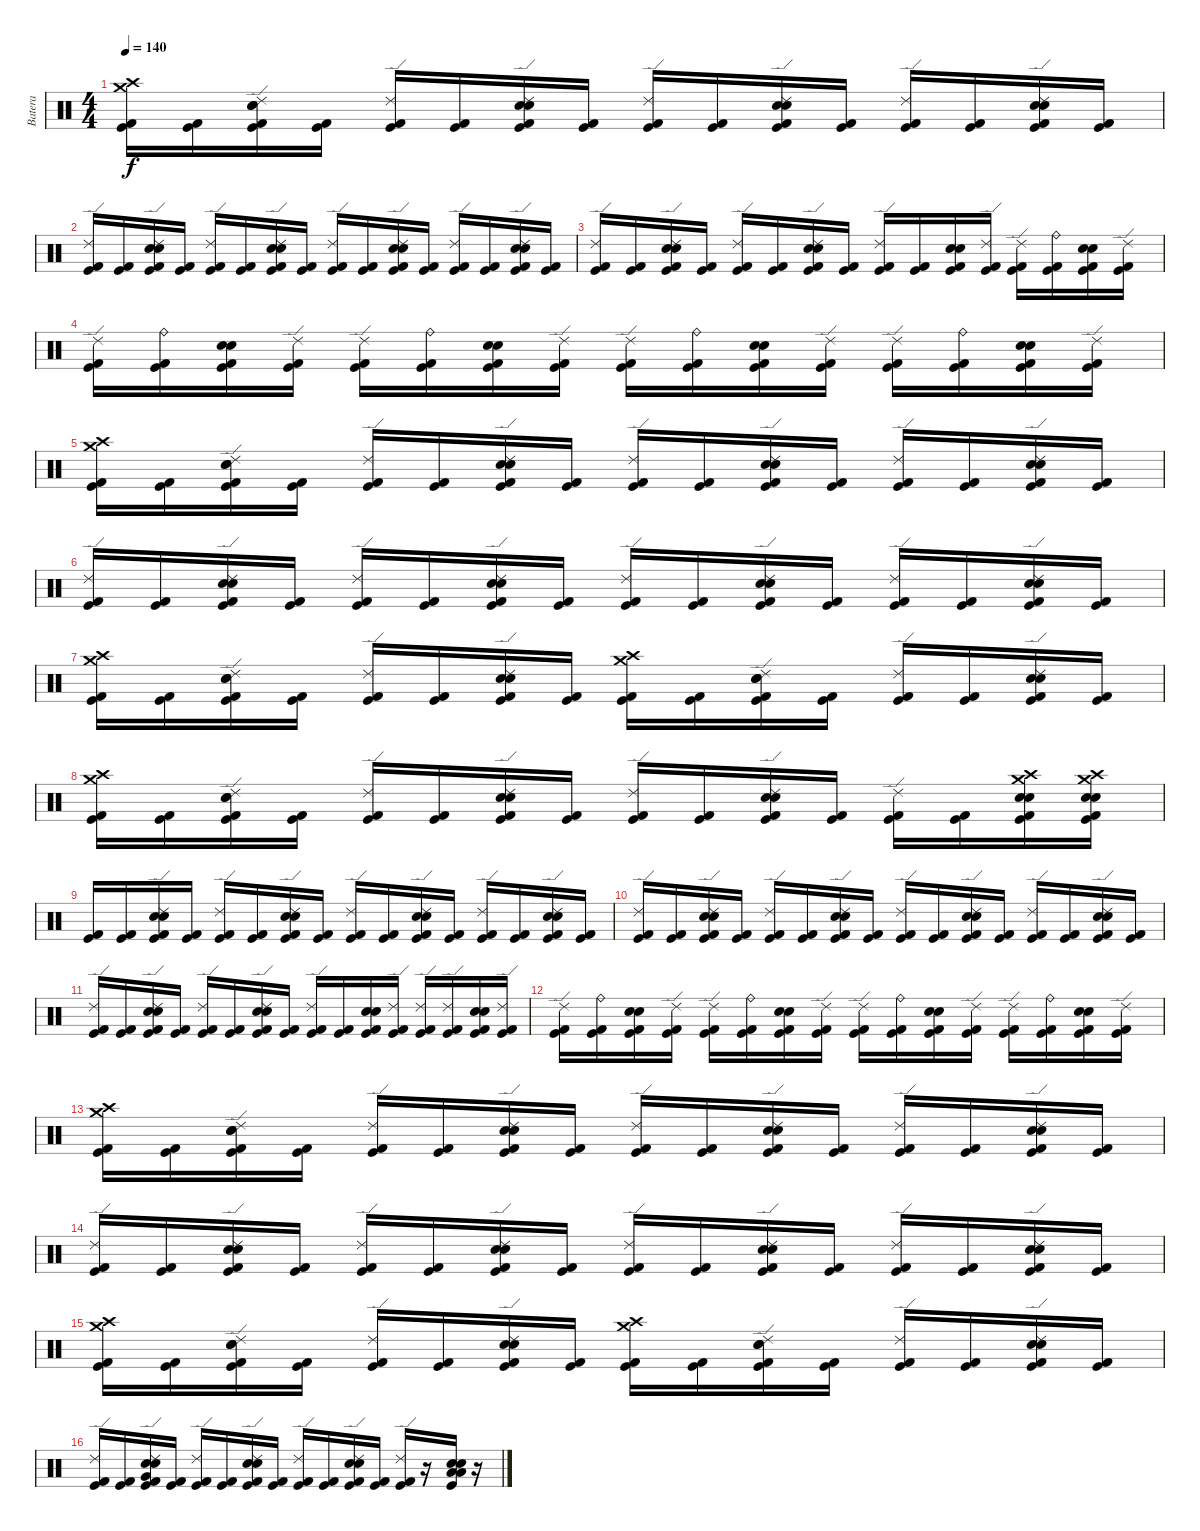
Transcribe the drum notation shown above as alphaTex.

\track ("Batera" "Batera") {instrument percussion}
\staff {score}
\articulation defaults
\ts (4 4)
\tempo 140
\clef neutral
\ks c
("Crash high (hit)" "Crash medium (hit)" "Kick (hit) 2" "Kick (hit)").16{dy f} ("Kick (hit) 2" "Kick (hit)").16 ("Ride (edge) 2" "Electric Snare (hit)" "Snare (hit) 2" "Kick (hit) 2" "Kick (hit)").16 ("Kick (hit) 2" "Kick (hit)").16 ("Ride (edge) 2" "Kick (hit) 2" "Kick (hit)").16 ("Kick (hit) 2" "Kick (hit)").16 ("Ride (edge) 2" "Electric Snare (hit)" "Snare (hit) 2" "Kick (hit) 2" "Kick (hit)").16 ("Kick (hit) 2" "Kick (hit)").16 ("Ride (edge) 2" "Kick (hit) 2" "Kick (hit)").16 ("Kick (hit) 2" "Kick (hit)").16 ("Ride (edge) 2" "Electric Snare (hit)" "Snare (hit) 2" "Kick (hit) 2" "Kick (hit)").16 ("Kick (hit) 2" "Kick (hit)").16 ("Ride (edge) 2" "Kick (hit) 2" "Kick (hit)").16 ("Kick (hit) 2" "Kick (hit)").16 ("Ride (edge) 2" "Electric Snare (hit)" "Snare (hit) 2" "Kick (hit) 2" "Kick (hit)").16 ("Kick (hit) 2" "Kick (hit)").16 |
("Ride (edge) 2" "Kick (hit) 2" "Kick (hit)").16 ("Kick (hit) 2" "Kick (hit)").16 ("Ride (edge) 2" "Electric Snare (hit)" "Snare (hit) 2" "Kick (hit) 2" "Kick (hit)").16 ("Kick (hit) 2" "Kick (hit)").16 ("Ride (edge) 2" "Kick (hit) 2" "Kick (hit)").16 ("Kick (hit) 2" "Kick (hit)").16 ("Ride (edge) 2" "Electric Snare (hit)" "Snare (hit) 2" "Kick (hit) 2" "Kick (hit)").16 ("Kick (hit) 2" "Kick (hit)").16 ("Ride (edge) 2" "Kick (hit) 2" "Kick (hit)").16 ("Kick (hit) 2" "Kick (hit)").16 ("Ride (edge) 2" "Electric Snare (hit)" "Snare (hit) 2" "Kick (hit) 2" "Kick (hit)").16 ("Kick (hit) 2" "Kick (hit)").16 ("Ride (edge) 2" "Kick (hit) 2" "Kick (hit)").16 ("Kick (hit) 2" "Kick (hit)").16 ("Ride (edge) 2" "Electric Snare (hit)" "Snare (hit) 2" "Kick (hit) 2" "Kick (hit)").16 ("Kick (hit) 2" "Kick (hit)").16 |
("Ride (edge) 2" "Kick (hit) 2" "Kick (hit)").16 ("Kick (hit) 2" "Kick (hit)").16 ("Ride (edge) 2" "Electric Snare (hit)" "Snare (hit) 2" "Kick (hit) 2" "Kick (hit)").16 ("Kick (hit) 2" "Kick (hit)").16 ("Ride (edge) 2" "Kick (hit) 2" "Kick (hit)").16 ("Kick (hit) 2" "Kick (hit)").16 ("Ride (edge) 2" "Electric Snare (hit)" "Snare (hit) 2" "Kick (hit) 2" "Kick (hit)").16 ("Kick (hit) 2" "Kick (hit)").16 ("Ride (edge) 2" "Kick (hit) 2" "Kick (hit)").16 ("Kick (hit) 2" "Kick (hit)").16 ("Electric Snare (hit)" "Snare (hit) 2" "Kick (hit) 2" "Kick (hit)").16 ("Ride (edge) 2" "Kick (hit) 2" "Kick (hit)").16 ("Ride (edge) 2" "Kick (hit) 2" "Kick (hit)").16 ("Ride (bell)" "Kick (hit) 2" "Kick (hit)").16 ("Electric Snare (hit)" "Snare (hit) 2" "Kick (hit) 2" "Kick (hit)").16 ("Ride (edge) 2" "Kick (hit) 2" "Kick (hit)").16 |
("Ride (edge) 2" "Kick (hit) 2" "Kick (hit)").16 ("Ride (bell)" "Kick (hit) 2" "Kick (hit)").16 ("Electric Snare (hit)" "Snare (hit) 2" "Kick (hit) 2" "Kick (hit)").16 ("Ride (edge) 2" "Kick (hit) 2" "Kick (hit)").16 ("Ride (edge) 2" "Kick (hit) 2" "Kick (hit)").16 ("Ride (bell)" "Kick (hit) 2" "Kick (hit)").16 ("Electric Snare (hit)" "Snare (hit) 2" "Kick (hit) 2" "Kick (hit)").16 ("Ride (edge) 2" "Kick (hit) 2" "Kick (hit)").16 ("Ride (edge) 2" "Kick (hit) 2" "Kick (hit)").16 ("Ride (bell)" "Kick (hit) 2" "Kick (hit)").16 ("Electric Snare (hit)" "Snare (hit) 2" "Kick (hit) 2" "Kick (hit)").16 ("Ride (edge) 2" "Kick (hit) 2" "Kick (hit)").16 ("Ride (edge) 2" "Kick (hit) 2" "Kick (hit)").16 ("Ride (bell)" "Kick (hit) 2" "Kick (hit)").16 ("Electric Snare (hit)" "Snare (hit) 2" "Kick (hit) 2" "Kick (hit)").16 ("Ride (edge) 2" "Kick (hit) 2" "Kick (hit)").16 |
("Crash high (hit)" "Crash medium (hit)" "Kick (hit) 2" "Kick (hit)").16 ("Kick (hit) 2" "Kick (hit)").16 ("Ride (edge) 2" "Electric Snare (hit)" "Snare (hit) 2" "Kick (hit) 2" "Kick (hit)").16 ("Kick (hit) 2" "Kick (hit)").16 ("Ride (edge) 2" "Kick (hit) 2" "Kick (hit)").16 ("Kick (hit) 2" "Kick (hit)").16 ("Ride (edge) 2" "Electric Snare (hit)" "Snare (hit) 2" "Kick (hit) 2" "Kick (hit)").16 ("Kick (hit) 2" "Kick (hit)").16 ("Ride (edge) 2" "Kick (hit) 2" "Kick (hit)").16 ("Kick (hit) 2" "Kick (hit)").16 ("Ride (edge) 2" "Electric Snare (hit)" "Snare (hit) 2" "Kick (hit) 2" "Kick (hit)").16 ("Kick (hit) 2" "Kick (hit)").16 ("Ride (edge) 2" "Kick (hit) 2" "Kick (hit)").16 ("Kick (hit) 2" "Kick (hit)").16 ("Ride (edge) 2" "Electric Snare (hit)" "Snare (hit) 2" "Kick (hit) 2" "Kick (hit)").16 ("Kick (hit) 2" "Kick (hit)").16 |
("Ride (edge) 2" "Kick (hit) 2" "Kick (hit)").16 ("Kick (hit) 2" "Kick (hit)").16 ("Ride (edge) 2" "Electric Snare (hit)" "Snare (hit) 2" "Kick (hit) 2" "Kick (hit)").16 ("Kick (hit) 2" "Kick (hit)").16 ("Ride (edge) 2" "Kick (hit) 2" "Kick (hit)").16 ("Kick (hit) 2" "Kick (hit)").16 ("Ride (edge) 2" "Electric Snare (hit)" "Snare (hit) 2" "Kick (hit) 2" "Kick (hit)").16 ("Kick (hit) 2" "Kick (hit)").16 ("Ride (edge) 2" "Kick (hit) 2" "Kick (hit)").16 ("Kick (hit) 2" "Kick (hit)").16 ("Ride (edge) 2" "Electric Snare (hit)" "Snare (hit) 2" "Kick (hit) 2" "Kick (hit)").16 ("Kick (hit) 2" "Kick (hit)").16 ("Ride (edge) 2" "Kick (hit) 2" "Kick (hit)").16 ("Kick (hit) 2" "Kick (hit)").16 ("Ride (edge) 2" "Electric Snare (hit)" "Snare (hit) 2" "Kick (hit) 2" "Kick (hit)").16 ("Kick (hit) 2" "Kick (hit)").16 |
("Crash high (hit)" "Crash medium (hit)" "Kick (hit) 2" "Kick (hit)").16 ("Kick (hit) 2" "Kick (hit)").16 ("Ride (edge) 2" "Electric Snare (hit)" "Snare (hit) 2" "Kick (hit) 2" "Kick (hit)").16 ("Kick (hit) 2" "Kick (hit)").16 ("Ride (edge) 2" "Kick (hit) 2" "Kick (hit)").16 ("Kick (hit) 2" "Kick (hit)").16 ("Ride (edge) 2" "Electric Snare (hit)" "Snare (hit) 2" "Kick (hit) 2" "Kick (hit)").16 ("Kick (hit) 2" "Kick (hit)").16 ("Crash high (hit)" "Crash medium (hit)" "Kick (hit) 2" "Kick (hit)").16 ("Kick (hit) 2" "Kick (hit)").16 ("Ride (edge) 2" "Electric Snare (hit)" "Snare (hit) 2" "Kick (hit) 2" "Kick (hit)").16 ("Kick (hit) 2" "Kick (hit)").16 ("Ride (edge) 2" "Kick (hit) 2" "Kick (hit)").16 ("Kick (hit) 2" "Kick (hit)").16 ("Ride (edge) 2" "Electric Snare (hit)" "Snare (hit) 2" "Kick (hit) 2" "Kick (hit)").16 ("Kick (hit) 2" "Kick (hit)").16 |
("Crash high (hit)" "Crash medium (hit)" "Kick (hit) 2" "Kick (hit)").16 ("Kick (hit) 2" "Kick (hit)").16 ("Ride (edge) 2" "Electric Snare (hit)" "Snare (hit) 2" "Kick (hit) 2" "Kick (hit)").16 ("Kick (hit) 2" "Kick (hit)").16 ("Ride (edge) 2" "Kick (hit) 2" "Kick (hit)").16 ("Kick (hit) 2" "Kick (hit)").16 ("Ride (edge) 2" "Electric Snare (hit)" "Snare (hit) 2" "Kick (hit) 2" "Kick (hit)").16 ("Kick (hit) 2" "Kick (hit)").16 ("Ride (edge) 2" "Kick (hit) 2" "Kick (hit)").16 ("Kick (hit) 2" "Kick (hit)").16 ("Ride (edge) 2" "Electric Snare (hit)" "Snare (hit) 2" "Kick (hit) 2" "Kick (hit)").16 ("Kick (hit) 2" "Kick (hit)").16 ("Ride (edge) 2" "Kick (hit) 2" "Kick (hit)").16 ("Kick (hit) 2" "Kick (hit)").16 ("Crash high (hit)" "Crash medium (hit)" "Electric Snare (hit)" "Snare (hit) 2" "Kick (hit) 2" "Kick (hit)").16 ("Crash high (hit)" "Crash medium (hit)" "Electric Snare (hit)" "Snare (hit) 2" "Kick (hit) 2" "Kick (hit)").16 |
("Kick (hit) 2" "Kick (hit)").16 ("Kick (hit) 2" "Kick (hit)").16 ("Ride (edge) 2" "Electric Snare (hit)" "Snare (hit) 2" "Kick (hit) 2" "Kick (hit)").16 ("Kick (hit) 2" "Kick (hit)").16 ("Ride (edge) 2" "Kick (hit) 2" "Kick (hit)").16 ("Kick (hit) 2" "Kick (hit)").16 ("Ride (edge) 2" "Electric Snare (hit)" "Snare (hit) 2" "Kick (hit) 2" "Kick (hit)").16 ("Kick (hit) 2" "Kick (hit)").16 ("Ride (edge) 2" "Kick (hit) 2" "Kick (hit)").16 ("Kick (hit) 2" "Kick (hit)").16 ("Ride (edge) 2" "Electric Snare (hit)" "Snare (hit) 2" "Kick (hit) 2" "Kick (hit)").16 ("Kick (hit) 2" "Kick (hit)").16 ("Ride (edge) 2" "Kick (hit) 2" "Kick (hit)").16 ("Kick (hit) 2" "Kick (hit)").16 ("Ride (edge) 2" "Electric Snare (hit)" "Snare (hit) 2" "Kick (hit) 2" "Kick (hit)").16 ("Kick (hit) 2" "Kick (hit)").16 |
("Ride (edge) 2" "Kick (hit) 2" "Kick (hit)").16 ("Kick (hit) 2" "Kick (hit)").16 ("Ride (edge) 2" "Electric Snare (hit)" "Snare (hit) 2" "Kick (hit) 2" "Kick (hit)").16 ("Kick (hit) 2" "Kick (hit)").16 ("Ride (edge) 2" "Kick (hit) 2" "Kick (hit)").16 ("Kick (hit) 2" "Kick (hit)").16 ("Ride (edge) 2" "Electric Snare (hit)" "Snare (hit) 2" "Kick (hit) 2" "Kick (hit)").16 ("Kick (hit) 2" "Kick (hit)").16 ("Ride (edge) 2" "Kick (hit) 2" "Kick (hit)").16 ("Kick (hit) 2" "Kick (hit)").16 ("Ride (edge) 2" "Electric Snare (hit)" "Snare (hit) 2" "Kick (hit) 2" "Kick (hit)").16 ("Kick (hit) 2" "Kick (hit)").16 ("Ride (edge) 2" "Kick (hit) 2" "Kick (hit)").16 ("Kick (hit) 2" "Kick (hit)").16 ("Ride (edge) 2" "Electric Snare (hit)" "Snare (hit) 2" "Kick (hit) 2" "Kick (hit)").16 ("Kick (hit) 2" "Kick (hit)").16 |
("Ride (edge) 2" "Kick (hit) 2" "Kick (hit)").16 ("Kick (hit) 2" "Kick (hit)").16 ("Ride (edge) 2" "Electric Snare (hit)" "Snare (hit) 2" "Kick (hit) 2" "Kick (hit)").16 ("Kick (hit) 2" "Kick (hit)").16 ("Ride (edge) 2" "Kick (hit) 2" "Kick (hit)").16 ("Kick (hit) 2" "Kick (hit)").16 ("Ride (edge) 2" "Electric Snare (hit)" "Snare (hit) 2" "Kick (hit) 2" "Kick (hit)").16 ("Kick (hit) 2" "Kick (hit)").16 ("Ride (edge) 2" "Kick (hit) 2" "Kick (hit)").16 ("Kick (hit) 2" "Kick (hit)").16 ("Electric Snare (hit)" "Snare (hit) 2" "Kick (hit) 2" "Kick (hit)").16 ("Ride (edge) 2" "Kick (hit) 2" "Kick (hit)").16 ("Ride (edge) 2" "Kick (hit) 2" "Kick (hit)").16 ("Ride (edge) 2" "Kick (hit) 2" "Kick (hit)").16 ("Electric Snare (hit)" "Snare (hit) 2" "Kick (hit) 2" "Kick (hit)").16 ("Ride (edge) 2" "Kick (hit) 2" "Kick (hit)").16 |
("Ride (edge) 2" "Kick (hit) 2" "Kick (hit)").16 ("Ride (bell)" "Kick (hit) 2" "Kick (hit)").16 ("Electric Snare (hit)" "Snare (hit) 2" "Kick (hit) 2" "Kick (hit)").16 ("Ride (edge) 2" "Kick (hit) 2" "Kick (hit)").16 ("Ride (edge) 2" "Kick (hit) 2" "Kick (hit)").16 ("Ride (bell)" "Kick (hit) 2" "Kick (hit)").16 ("Electric Snare (hit)" "Snare (hit) 2" "Kick (hit) 2" "Kick (hit)").16 ("Ride (edge) 2" "Kick (hit) 2" "Kick (hit)").16 ("Ride (edge) 2" "Kick (hit) 2" "Kick (hit)").16 ("Ride (bell)" "Kick (hit) 2" "Kick (hit)").16 ("Electric Snare (hit)" "Snare (hit) 2" "Kick (hit) 2" "Kick (hit)").16 ("Ride (edge) 2" "Kick (hit) 2" "Kick (hit)").16 ("Ride (edge) 2" "Kick (hit) 2" "Kick (hit)").16 ("Ride (bell)" "Kick (hit) 2" "Kick (hit)").16 ("Electric Snare (hit)" "Snare (hit) 2" "Kick (hit) 2" "Kick (hit)").16 ("Ride (edge) 2" "Kick (hit) 2" "Kick (hit)").16 |
("Crash high (hit)" "Crash medium (hit)" "Kick (hit) 2" "Kick (hit)").16 ("Kick (hit) 2" "Kick (hit)").16 ("Ride (edge) 2" "Electric Snare (hit)" "Snare (hit) 2" "Kick (hit) 2" "Kick (hit)").16 ("Kick (hit) 2" "Kick (hit)").16 ("Ride (edge) 2" "Kick (hit) 2" "Kick (hit)").16 ("Kick (hit) 2" "Kick (hit)").16 ("Ride (edge) 2" "Electric Snare (hit)" "Snare (hit) 2" "Kick (hit) 2" "Kick (hit)").16 ("Kick (hit) 2" "Kick (hit)").16 ("Ride (edge) 2" "Kick (hit) 2" "Kick (hit)").16 ("Kick (hit) 2" "Kick (hit)").16 ("Ride (edge) 2" "Electric Snare (hit)" "Snare (hit) 2" "Kick (hit) 2" "Kick (hit)").16 ("Kick (hit) 2" "Kick (hit)").16 ("Ride (edge) 2" "Kick (hit) 2" "Kick (hit)").16 ("Kick (hit) 2" "Kick (hit)").16 ("Ride (edge) 2" "Electric Snare (hit)" "Snare (hit) 2" "Kick (hit) 2" "Kick (hit)").16 ("Kick (hit) 2" "Kick (hit)").16 |
("Ride (edge) 2" "Kick (hit) 2" "Kick (hit)").16 ("Kick (hit) 2" "Kick (hit)").16 ("Ride (edge) 2" "Electric Snare (hit)" "Snare (hit) 2" "Kick (hit) 2" "Kick (hit)").16 ("Kick (hit) 2" "Kick (hit)").16 ("Ride (edge) 2" "Kick (hit) 2" "Kick (hit)").16 ("Kick (hit) 2" "Kick (hit)").16 ("Ride (edge) 2" "Electric Snare (hit)" "Snare (hit) 2" "Kick (hit) 2" "Kick (hit)").16 ("Kick (hit) 2" "Kick (hit)").16 ("Ride (edge) 2" "Kick (hit) 2" "Kick (hit)").16 ("Kick (hit) 2" "Kick (hit)").16 ("Ride (edge) 2" "Electric Snare (hit)" "Snare (hit) 2" "Kick (hit) 2" "Kick (hit)").16 ("Kick (hit) 2" "Kick (hit)").16 ("Ride (edge) 2" "Kick (hit) 2" "Kick (hit)").16 ("Kick (hit) 2" "Kick (hit)").16 ("Ride (edge) 2" "Electric Snare (hit)" "Snare (hit) 2" "Kick (hit) 2" "Kick (hit)").16 ("Kick (hit) 2" "Kick (hit)").16 |
("Crash high (hit)" "Crash medium (hit)" "Kick (hit) 2" "Kick (hit)").16 ("Kick (hit) 2" "Kick (hit)").16 ("Ride (edge) 2" "Electric Snare (hit)" "Snare (hit) 2" "Kick (hit) 2" "Kick (hit)").16 ("Kick (hit) 2" "Kick (hit)").16 ("Ride (edge) 2" "Kick (hit) 2" "Kick (hit)").16 ("Kick (hit) 2" "Kick (hit)").16 ("Ride (edge) 2" "Electric Snare (hit)" "Snare (hit) 2" "Kick (hit) 2" "Kick (hit)").16 ("Kick (hit) 2" "Kick (hit)").16 ("Crash high (hit)" "Crash medium (hit)" "Kick (hit) 2" "Kick (hit)").16 ("Kick (hit) 2" "Kick (hit)").16 ("Ride (edge) 2" "Electric Snare (hit)" "Snare (hit) 2" "Kick (hit) 2" "Kick (hit)").16 ("Kick (hit) 2" "Kick (hit)").16 ("Ride (edge) 2" "Kick (hit) 2" "Kick (hit)").16 ("Kick (hit) 2" "Kick (hit)").16 ("Ride (edge) 2" "Electric Snare (hit)" "Snare (hit) 2" "Kick (hit) 2" "Kick (hit)").16 ("Kick (hit) 2" "Kick (hit)").16 |
("Ride (edge) 2" "Kick (hit) 2" "Kick (hit)").16 ("Kick (hit) 2" "Kick (hit)").16 ("Very Low Tom (hit)" "Ride (edge) 2" "Electric Snare (hit)" "Snare (hit) 2" "Kick (hit) 2" "Kick (hit)").16 ("Kick (hit) 2" "Kick (hit)").16 ("Ride (edge) 2" "Kick (hit) 2" "Kick (hit)").16 ("Kick (hit) 2" "Kick (hit)").16 ("Ride (edge) 2" "Electric Snare (hit)" "Snare (hit) 2" "Kick (hit) 2" "Kick (hit)").16 ("Kick (hit) 2" "Kick (hit)").16 ("Ride (edge) 2" "Kick (hit) 2" "Kick (hit)").16 ("Kick (hit) 2" "Kick (hit)").16 ("Ride (edge) 2" "Electric Snare (hit)" "Snare (hit) 2" "Kick (hit) 2" "Kick (hit)").16 ("Kick (hit) 2" "Kick (hit)").16 ("Kick (hit) 2" "Kick (hit)" "Ride (edge) 2").16 r.16 ("Low Tom (hit)" "Kick (hit)" "Low Floor Tom (hit)" "Electric Snare (hit)" "Snare (hit) 2").16 r.16
